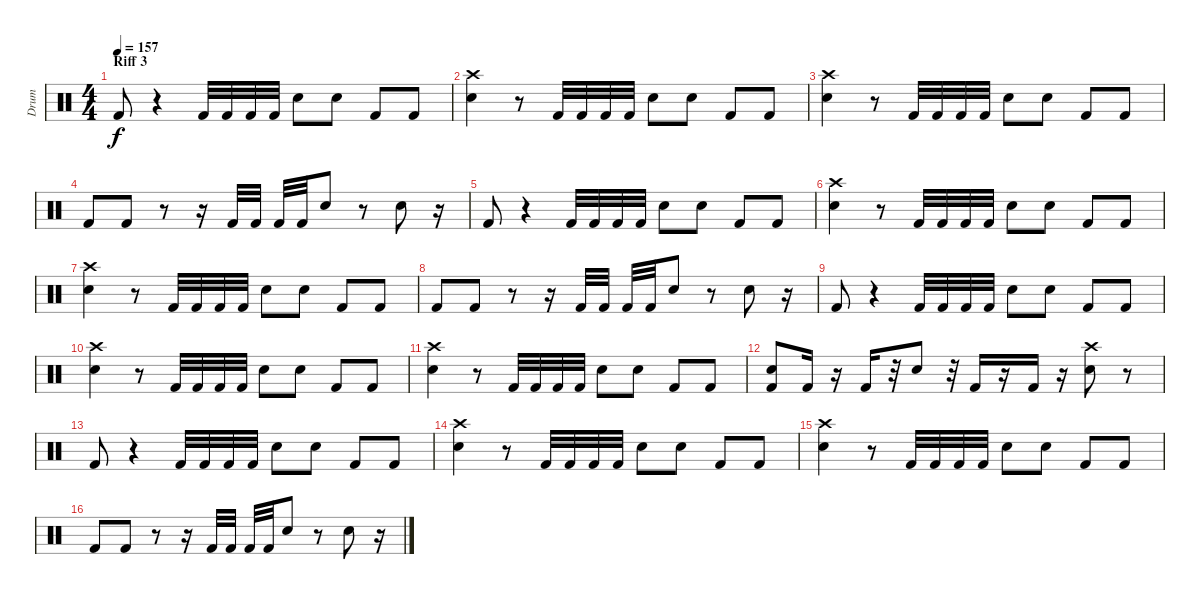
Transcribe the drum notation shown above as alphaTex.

\track ("Drum" "Drum") {instrument percussion}
\staff {score}
\articulation defaults
\ts (4 4)
\section ("" "Riff 3")
\tempo 157
\clef neutral
\ks c "Kick (hit) 2".8{dy f}
r.4 "Kick (hit) 2".32 "Kick (hit) 2".32 "Kick (hit) 2".32 "Kick (hit) 2".32 "Electric Snare (hit)".8 "Electric Snare (hit)".8 "Kick (hit) 2".8 "Kick (hit) 2".8 |
("Crash high (hit)" "Electric Snare (hit)").4 r.8 "Kick (hit) 2".32 "Kick (hit) 2".32 "Kick (hit) 2".32 "Kick (hit) 2".32 "Electric Snare (hit)".8 "Electric Snare (hit)".8 "Kick (hit) 2".8 "Kick (hit) 2".8 |
("Crash high (hit)" "Electric Snare (hit)").4 r.8 "Kick (hit) 2".32 "Kick (hit) 2".32 "Kick (hit) 2".32 "Kick (hit) 2".32 "Electric Snare (hit)".8 "Electric Snare (hit)".8 "Kick (hit) 2".8 "Kick (hit) 2".8 |
"Kick (hit) 2".8 "Kick (hit) 2".8 r.8 r.16 "Kick (hit) 2".32 "Kick (hit) 2".32 "Kick (hit) 2".32 "Kick (hit) 2".32 "Electric Snare (hit)".8 r.8 "Electric Snare (hit)".8 r.16 |
"Kick (hit) 2".8 r.4 "Kick (hit) 2".32 "Kick (hit) 2".32 "Kick (hit) 2".32 "Kick (hit) 2".32 "Electric Snare (hit)".8 "Electric Snare (hit)".8 "Kick (hit) 2".8 "Kick (hit) 2".8 |
("Crash high (hit)" "Electric Snare (hit)").4 r.8 "Kick (hit) 2".32 "Kick (hit) 2".32 "Kick (hit) 2".32 "Kick (hit) 2".32 "Electric Snare (hit)".8 "Electric Snare (hit)".8 "Kick (hit) 2".8 "Kick (hit) 2".8 |
("Crash high (hit)" "Electric Snare (hit)").4 r.8 "Kick (hit) 2".32 "Kick (hit) 2".32 "Kick (hit) 2".32 "Kick (hit) 2".32 "Electric Snare (hit)".8 "Electric Snare (hit)".8 "Kick (hit) 2".8 "Kick (hit) 2".8 |
"Kick (hit) 2".8 "Kick (hit) 2".8 r.8 r.16 "Kick (hit) 2".32 "Kick (hit) 2".32 "Kick (hit) 2".32 "Kick (hit) 2".32 "Electric Snare (hit)".8 r.8 "Electric Snare (hit)".8 r.16 |
"Kick (hit) 2".8 r.4 "Kick (hit) 2".32 "Kick (hit) 2".32 "Kick (hit) 2".32 "Kick (hit) 2".32 "Electric Snare (hit)".8 "Electric Snare (hit)".8 "Kick (hit) 2".8 "Kick (hit) 2".8 |
("Crash high (hit)" "Electric Snare (hit)").4 r.8 "Kick (hit) 2".32 "Kick (hit) 2".32 "Kick (hit) 2".32 "Kick (hit) 2".32 "Electric Snare (hit)".8 "Electric Snare (hit)".8 "Kick (hit) 2".8 "Kick (hit) 2".8 |
("Crash high (hit)" "Electric Snare (hit)").4 r.8 "Kick (hit) 2".32 "Kick (hit) 2".32 "Kick (hit) 2".32 "Kick (hit) 2".32 "Electric Snare (hit)".8 "Electric Snare (hit)".8 "Kick (hit) 2".8 "Kick (hit) 2".8 |
("Electric Snare (hit)" "Kick (hit) 2").8 "Kick (hit) 2".16 r.16 "Kick (hit) 2".16 r.32 "Electric Snare (hit)".8 r.32 "Kick (hit) 2".16 r.16 "Kick (hit) 2".16 r.16 ("Crash high (hit)" "Electric Snare (hit)").8 r.8 |
"Kick (hit) 2".8 r.4 "Kick (hit) 2".32 "Kick (hit) 2".32 "Kick (hit) 2".32 "Kick (hit) 2".32 "Electric Snare (hit)".8 "Electric Snare (hit)".8 "Kick (hit) 2".8 "Kick (hit) 2".8 |
("Crash high (hit)" "Electric Snare (hit)").4 r.8 "Kick (hit) 2".32 "Kick (hit) 2".32 "Kick (hit) 2".32 "Kick (hit) 2".32 "Electric Snare (hit)".8 "Electric Snare (hit)".8 "Kick (hit) 2".8 "Kick (hit) 2".8 |
("Crash high (hit)" "Electric Snare (hit)").4 r.8 "Kick (hit) 2".32 "Kick (hit) 2".32 "Kick (hit) 2".32 "Kick (hit) 2".32 "Electric Snare (hit)".8 "Electric Snare (hit)".8 "Kick (hit) 2".8 "Kick (hit) 2".8 |
"Kick (hit) 2".8 "Kick (hit) 2".8 r.8 r.16 "Kick (hit) 2".32 "Kick (hit) 2".32 "Kick (hit) 2".32 "Kick (hit) 2".32 "Electric Snare (hit)".8 r.8 "Electric Snare (hit)".8 r.16
